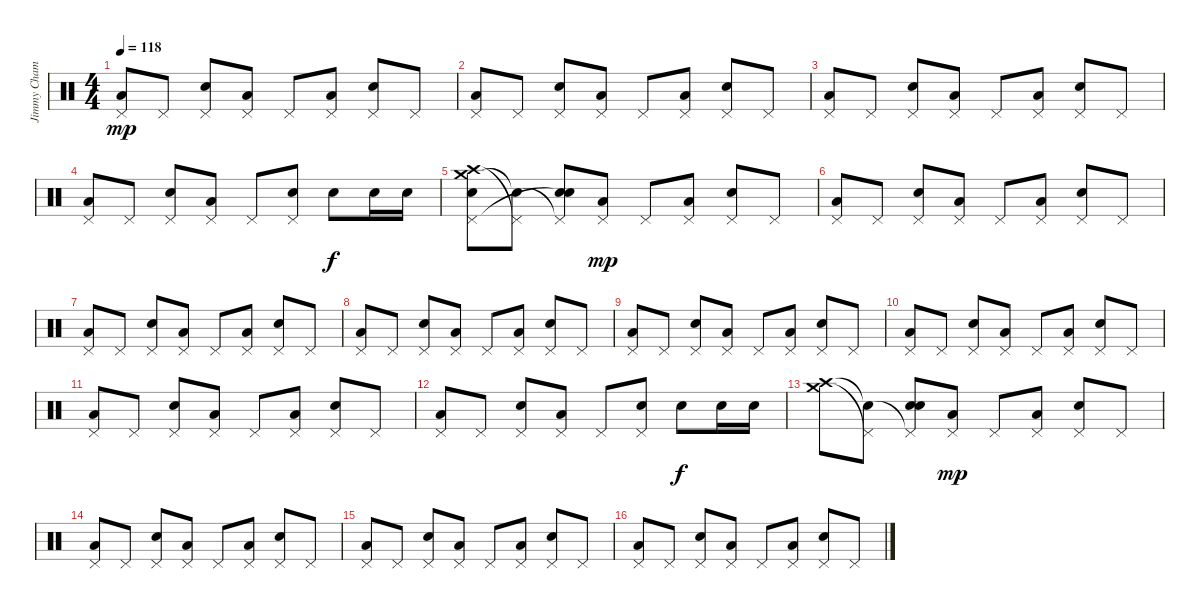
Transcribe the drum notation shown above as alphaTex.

\track ("Jimmy Chamberlin" "Jimmy Cham") {instrument percussion}
\staff {score}
\articulation defaults
\ts (4 4)
\tempo 118
\clef neutral
\ks c
("Low Floor Tom (hit)" "Pedal Hi-Hat (hit)").8{dy mp} "Pedal Hi-Hat (hit)".8 ("Snare (hit) 2" "Pedal Hi-Hat (hit)").8 ("Low Floor Tom (hit)" "Pedal Hi-Hat (hit)").8 "Pedal Hi-Hat (hit)".8 ("Low Floor Tom (hit)" "Pedal Hi-Hat (hit)").8 ("Snare (hit) 2" "Pedal Hi-Hat (hit)").8 "Pedal Hi-Hat (hit)".8 |
("Low Floor Tom (hit)" "Pedal Hi-Hat (hit)").8 "Pedal Hi-Hat (hit)".8 ("Snare (hit) 2" "Pedal Hi-Hat (hit)").8 ("Low Floor Tom (hit)" "Pedal Hi-Hat (hit)").8 "Pedal Hi-Hat (hit)".8 ("Low Floor Tom (hit)" "Pedal Hi-Hat (hit)").8 ("Snare (hit) 2" "Pedal Hi-Hat (hit)").8 "Pedal Hi-Hat (hit)".8 |
("Low Floor Tom (hit)" "Pedal Hi-Hat (hit)").8 "Pedal Hi-Hat (hit)".8 ("Snare (hit) 2" "Pedal Hi-Hat (hit)").8 ("Low Floor Tom (hit)" "Pedal Hi-Hat (hit)").8 "Pedal Hi-Hat (hit)".8 ("Low Floor Tom (hit)" "Pedal Hi-Hat (hit)").8 ("Snare (hit) 2" "Pedal Hi-Hat (hit)").8 "Pedal Hi-Hat (hit)".8 |
("Low Floor Tom (hit)" "Pedal Hi-Hat (hit)").8 "Pedal Hi-Hat (hit)".8 ("Snare (hit) 2" "Pedal Hi-Hat (hit)").8 ("Low Floor Tom (hit)" "Pedal Hi-Hat (hit)").8 "Pedal Hi-Hat (hit)".8 ("Snare (hit) 2" "Pedal Hi-Hat (hit)").8 "Snare (hit) 2".8{dy f} "Snare (hit) 2".16 "Snare (hit) 2".16 |
("Crash high (hit)" "Crash medium (hit)" "Pedal Hi-Hat (hit)" "Snare (hit)").8 ("Pedal Hi-Hat (hit)"{t} "Snare (hit)"{t}).8 ("Snare (hit) 2" "Pedal Hi-Hat (hit)"{t} "Snare (hit)"{t}).8 ("Low Floor Tom (hit)" "Pedal Hi-Hat (hit)").8{dy mp} "Pedal Hi-Hat (hit)".8 ("Low Floor Tom (hit)" "Pedal Hi-Hat (hit)").8 ("Snare (hit) 2" "Pedal Hi-Hat (hit)").8 "Pedal Hi-Hat (hit)".8 |
("Low Floor Tom (hit)" "Pedal Hi-Hat (hit)").8 "Pedal Hi-Hat (hit)".8 ("Snare (hit) 2" "Pedal Hi-Hat (hit)").8 ("Low Floor Tom (hit)" "Pedal Hi-Hat (hit)").8 "Pedal Hi-Hat (hit)".8 ("Low Floor Tom (hit)" "Pedal Hi-Hat (hit)").8 ("Snare (hit) 2" "Pedal Hi-Hat (hit)").8 "Pedal Hi-Hat (hit)".8 |
("Low Floor Tom (hit)" "Pedal Hi-Hat (hit)").8 "Pedal Hi-Hat (hit)".8 ("Snare (hit) 2" "Pedal Hi-Hat (hit)").8 ("Low Floor Tom (hit)" "Pedal Hi-Hat (hit)").8 "Pedal Hi-Hat (hit)".8 ("Low Floor Tom (hit)" "Pedal Hi-Hat (hit)").8 ("Snare (hit) 2" "Pedal Hi-Hat (hit)").8 "Pedal Hi-Hat (hit)".8 |
("Low Floor Tom (hit)" "Pedal Hi-Hat (hit)").8 "Pedal Hi-Hat (hit)".8 ("Snare (hit) 2" "Pedal Hi-Hat (hit)").8 ("Low Floor Tom (hit)" "Pedal Hi-Hat (hit)").8 "Pedal Hi-Hat (hit)".8 ("Low Floor Tom (hit)" "Pedal Hi-Hat (hit)").8 ("Snare (hit) 2" "Pedal Hi-Hat (hit)").8 "Pedal Hi-Hat (hit)".8 |
("Low Floor Tom (hit)" "Pedal Hi-Hat (hit)").8 "Pedal Hi-Hat (hit)".8 ("Snare (hit) 2" "Pedal Hi-Hat (hit)").8 ("Low Floor Tom (hit)" "Pedal Hi-Hat (hit)").8 "Pedal Hi-Hat (hit)".8 ("Low Floor Tom (hit)" "Pedal Hi-Hat (hit)").8 ("Snare (hit) 2" "Pedal Hi-Hat (hit)").8 "Pedal Hi-Hat (hit)".8 |
("Low Floor Tom (hit)" "Pedal Hi-Hat (hit)").8 "Pedal Hi-Hat (hit)".8 ("Snare (hit) 2" "Pedal Hi-Hat (hit)").8 ("Low Floor Tom (hit)" "Pedal Hi-Hat (hit)").8 "Pedal Hi-Hat (hit)".8 ("Low Floor Tom (hit)" "Pedal Hi-Hat (hit)").8 ("Snare (hit) 2" "Pedal Hi-Hat (hit)").8 "Pedal Hi-Hat (hit)".8 |
("Low Floor Tom (hit)" "Pedal Hi-Hat (hit)").8 "Pedal Hi-Hat (hit)".8 ("Snare (hit) 2" "Pedal Hi-Hat (hit)").8 ("Low Floor Tom (hit)" "Pedal Hi-Hat (hit)").8 "Pedal Hi-Hat (hit)".8 ("Low Floor Tom (hit)" "Pedal Hi-Hat (hit)").8 ("Snare (hit) 2" "Pedal Hi-Hat (hit)").8 "Pedal Hi-Hat (hit)".8 |
("Low Floor Tom (hit)" "Pedal Hi-Hat (hit)").8 "Pedal Hi-Hat (hit)".8 ("Snare (hit) 2" "Pedal Hi-Hat (hit)").8 ("Low Floor Tom (hit)" "Pedal Hi-Hat (hit)").8 "Pedal Hi-Hat (hit)".8 ("Snare (hit) 2" "Pedal Hi-Hat (hit)").8 "Snare (hit) 2".8{dy f} "Snare (hit) 2".16 "Snare (hit) 2".16 |
("Crash medium (hit)" "Crash high (hit)").8 ("Pedal Hi-Hat (hit)"{t} "Snare (hit)"{t}).8 ("Snare (hit) 2" "Pedal Hi-Hat (hit)"{t} "Snare (hit)").8 ("Low Floor Tom (hit)" "Pedal Hi-Hat (hit)").8{dy mp} "Pedal Hi-Hat (hit)".8 ("Low Floor Tom (hit)" "Pedal Hi-Hat (hit)").8 ("Snare (hit) 2" "Pedal Hi-Hat (hit)").8 "Pedal Hi-Hat (hit)".8 |
("Low Floor Tom (hit)" "Pedal Hi-Hat (hit)").8 "Pedal Hi-Hat (hit)".8 ("Snare (hit) 2" "Pedal Hi-Hat (hit)").8 ("Low Floor Tom (hit)" "Pedal Hi-Hat (hit)").8 "Pedal Hi-Hat (hit)".8 ("Low Floor Tom (hit)" "Pedal Hi-Hat (hit)").8 ("Snare (hit) 2" "Pedal Hi-Hat (hit)").8 "Pedal Hi-Hat (hit)".8 |
("Low Floor Tom (hit)" "Pedal Hi-Hat (hit)").8 "Pedal Hi-Hat (hit)".8 ("Snare (hit) 2" "Pedal Hi-Hat (hit)").8 ("Low Floor Tom (hit)" "Pedal Hi-Hat (hit)").8 "Pedal Hi-Hat (hit)".8 ("Low Floor Tom (hit)" "Pedal Hi-Hat (hit)").8 ("Snare (hit) 2" "Pedal Hi-Hat (hit)").8 "Pedal Hi-Hat (hit)".8 |
("Low Floor Tom (hit)" "Pedal Hi-Hat (hit)").8 "Pedal Hi-Hat (hit)".8 ("Snare (hit) 2" "Pedal Hi-Hat (hit)").8 ("Low Floor Tom (hit)" "Pedal Hi-Hat (hit)").8 "Pedal Hi-Hat (hit)".8 ("Low Floor Tom (hit)" "Pedal Hi-Hat (hit)").8 ("Snare (hit) 2" "Pedal Hi-Hat (hit)").8 "Pedal Hi-Hat (hit)".8
